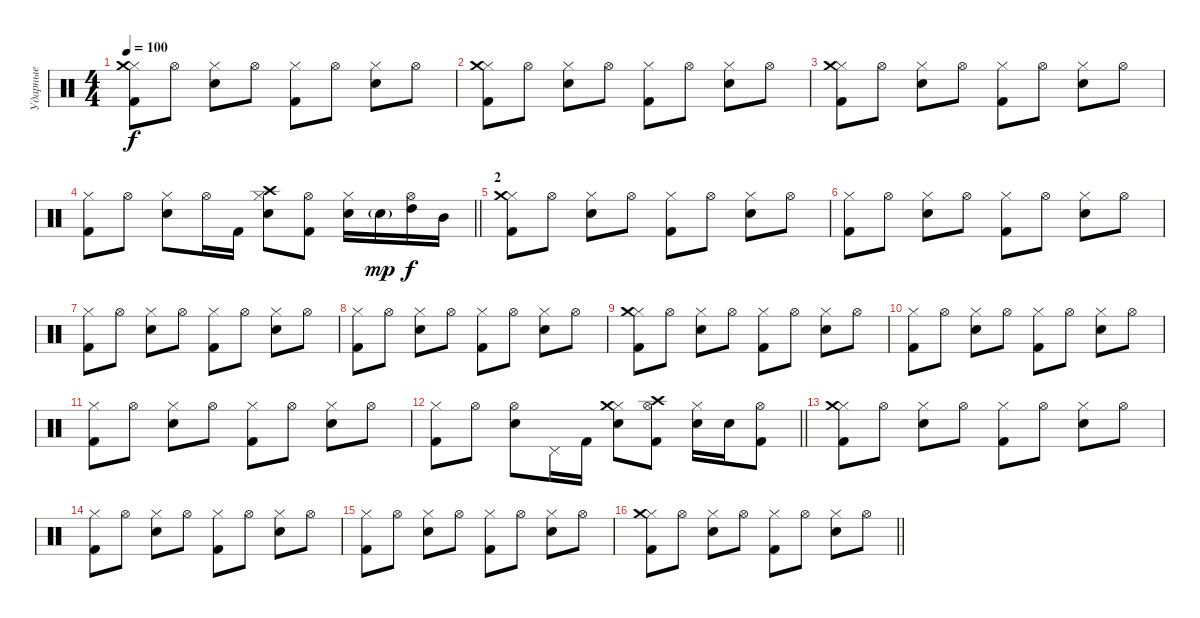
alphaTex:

\track ("Ударные" "Ударные") {instrument percussion}
\staff {score}
\articulation defaults
\ts (4 4)
\tempo 100
\clef neutral
\ks c
("Kick (hit) 2" "Hi-Hat (closed)" "Crash medium (hit)").8{dy f} "Hi-Hat (open)".8 ("Snare (hit) 2" "Hi-Hat (closed)").8 "Hi-Hat (open)".8 ("Kick (hit) 2" "Hi-Hat (closed)").8 "Hi-Hat (open)".8 ("Snare (hit) 2" "Hi-Hat (closed)").8 "Hi-Hat (open)".8 |
("Kick (hit) 2" "Hi-Hat (closed)" "Crash medium (hit)").8 "Hi-Hat (open)".8 ("Snare (hit) 2" "Hi-Hat (closed)").8 "Hi-Hat (open)".8 ("Kick (hit) 2" "Hi-Hat (closed)").8 "Hi-Hat (open)".8 ("Snare (hit) 2" "Hi-Hat (closed)").8 "Hi-Hat (open)".8 |
("Kick (hit) 2" "Hi-Hat (closed)" "Crash medium (hit)").8 "Hi-Hat (open)".8 ("Snare (hit) 2" "Hi-Hat (closed)").8 "Hi-Hat (open)".8 ("Kick (hit) 2" "Hi-Hat (closed)").8 "Hi-Hat (open)".8 ("Snare (hit) 2" "Hi-Hat (closed)").8 "Hi-Hat (open)".8 |
\barLineRight lightlight
("Kick (hit) 2" "Hi-Hat (closed)").8 "Hi-Hat (open)".8 ("Snare (hit) 2" "Hi-Hat (closed)").8 "Hi-Hat (open)".16 "Kick (hit) 2".16 ("Snare (hit) 2" "Hi-Hat (closed)" "Crash high (hit)").8 ("Kick (hit) 2" "Hi-Hat (open)").8 ("Snare (hit) 2" "Hi-Hat (closed)").16 "Snare (hit) 2"{g}.16{dy mp} ("Hi-Hat (open)" "High Tom (hit)").16{dy f} "Mid Tom (hit)".16 |
\section ("" "2")
("Kick (hit) 2" "Hi-Hat (closed)" "Crash medium (hit)").8 "Hi-Hat (open)".8 ("Snare (hit) 2" "Hi-Hat (closed)").8 "Hi-Hat (open)".8 ("Kick (hit) 2" "Hi-Hat (closed)").8 "Hi-Hat (open)".8 ("Snare (hit) 2" "Hi-Hat (closed)").8 "Hi-Hat (open)".8 |
("Kick (hit) 2" "Hi-Hat (closed)").8 "Hi-Hat (open)".8 ("Snare (hit) 2" "Hi-Hat (closed)").8 "Hi-Hat (open)".8 ("Kick (hit) 2" "Hi-Hat (closed)").8 "Hi-Hat (open)".8 ("Snare (hit) 2" "Hi-Hat (closed)").8 "Hi-Hat (open)".8 |
("Kick (hit) 2" "Hi-Hat (closed)").8 "Hi-Hat (open)".8 ("Snare (hit) 2" "Hi-Hat (closed)").8 "Hi-Hat (open)".8 ("Kick (hit) 2" "Hi-Hat (closed)").8 "Hi-Hat (open)".8 ("Snare (hit) 2" "Hi-Hat (closed)").8 "Hi-Hat (open)".8 |
("Kick (hit) 2" "Hi-Hat (closed)").8 "Hi-Hat (open)".8 ("Snare (hit) 2" "Hi-Hat (closed)").8 "Hi-Hat (open)".8 ("Kick (hit) 2" "Hi-Hat (closed)").8 "Hi-Hat (open)".8 ("Snare (hit) 2" "Hi-Hat (closed)").8 "Hi-Hat (open)".8 |
("Kick (hit) 2" "Hi-Hat (closed)" "Crash medium (hit)").8 "Hi-Hat (open)".8 ("Snare (hit) 2" "Hi-Hat (closed)").8 "Hi-Hat (open)".8 ("Kick (hit) 2" "Hi-Hat (closed)").8 "Hi-Hat (open)".8 ("Snare (hit) 2" "Hi-Hat (closed)").8 "Hi-Hat (open)".8 |
("Kick (hit) 2" "Hi-Hat (closed)").8 "Hi-Hat (open)".8 ("Snare (hit) 2" "Hi-Hat (closed)").8 "Hi-Hat (open)".8 ("Kick (hit) 2" "Hi-Hat (closed)").8 "Hi-Hat (open)".8 ("Snare (hit) 2" "Hi-Hat (closed)").8 "Hi-Hat (open)".8 |
("Kick (hit) 2" "Hi-Hat (closed)").8 "Hi-Hat (open)".8 ("Snare (hit) 2" "Hi-Hat (closed)").8 "Hi-Hat (open)".8 ("Kick (hit) 2" "Hi-Hat (closed)").8 "Hi-Hat (open)".8 ("Snare (hit) 2" "Hi-Hat (closed)").8 "Hi-Hat (open)".8 |
\barLineRight lightlight
("Kick (hit) 2" "Hi-Hat (closed)").8 "Hi-Hat (open)".8 ("Snare (hit) 2" "Hi-Hat (open)").8 "Pedal Hi-Hat (hit)".16 "Kick (hit) 2".16 ("Snare (hit) 2" "Hi-Hat (closed)" "Crash medium (hit)").8 ("Kick (hit) 2" "Hi-Hat (open)" "Crash high (hit)").8 ("Snare (hit) 2" "Hi-Hat (closed)").16 "Snare (hit) 2".16 ("Kick (hit) 2" "Hi-Hat (open)").8 |
("Kick (hit) 2" "Hi-Hat (closed)" "Crash medium (hit)").8 "Hi-Hat (open)".8 ("Snare (hit) 2" "Hi-Hat (closed)").8 "Hi-Hat (open)".8 ("Kick (hit) 2" "Hi-Hat (closed)").8 "Hi-Hat (open)".8 ("Snare (hit) 2" "Hi-Hat (closed)").8 "Hi-Hat (open)".8 |
("Kick (hit) 2" "Hi-Hat (closed)").8 "Hi-Hat (open)".8 ("Snare (hit) 2" "Hi-Hat (closed)").8 "Hi-Hat (open)".8 ("Kick (hit) 2" "Hi-Hat (closed)").8 "Hi-Hat (open)".8 ("Snare (hit) 2" "Hi-Hat (closed)").8 "Hi-Hat (open)".8 |
("Kick (hit) 2" "Hi-Hat (closed)").8 "Hi-Hat (open)".8 ("Snare (hit) 2" "Hi-Hat (closed)").8 "Hi-Hat (open)".8 ("Kick (hit) 2" "Hi-Hat (closed)").8 "Hi-Hat (open)".8 ("Snare (hit) 2" "Hi-Hat (closed)").8 "Hi-Hat (open)".8 |
\barLineRight lightlight
("Kick (hit) 2" "Hi-Hat (closed)" "Crash medium (hit)").8 "Hi-Hat (open)".8 ("Snare (hit) 2" "Hi-Hat (closed)").8 "Hi-Hat (open)".8 ("Kick (hit) 2" "Hi-Hat (closed)").8 "Hi-Hat (open)".8 ("Snare (hit) 2" "Hi-Hat (closed)").8 "Hi-Hat (open)".8
